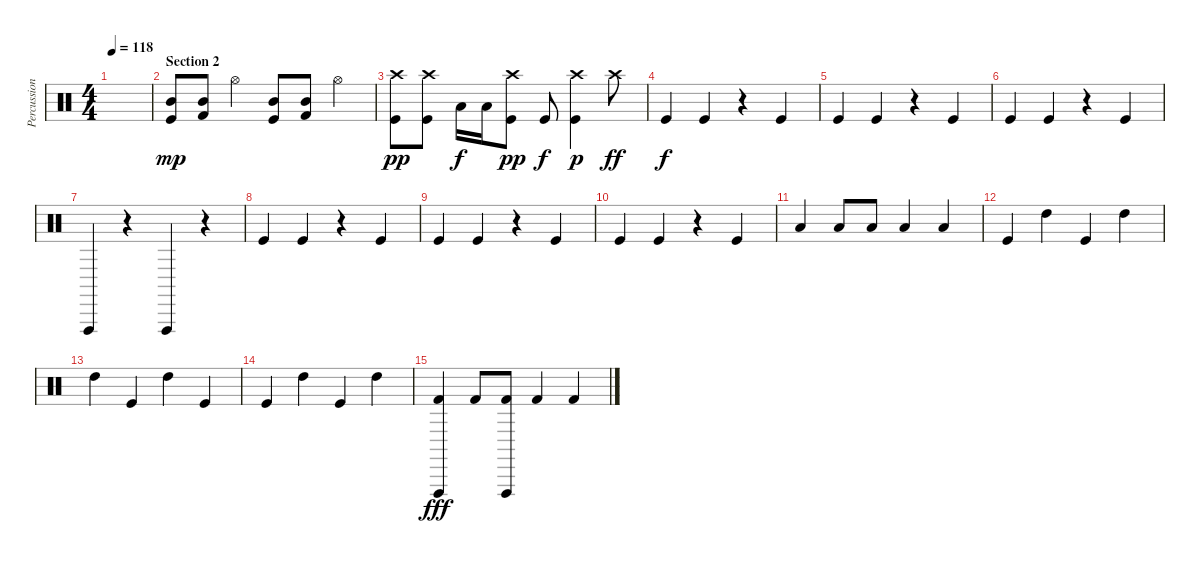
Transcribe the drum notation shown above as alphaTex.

\track ("Percussion" "Percussion") {instrument percussion}
\staff {score}
\articulation defaults
\ts (4 4)
\tempo 118
\clef neutral
\ks c
|
\section ("" "Section 2")
("Mid Tom (hit)" "Kick (hit)").8{dy mp} ("Mid Tom (hit)" "Kick (hit) 2").8 "Hi-Hat (open)".4 ("Mid Tom (hit)" "Kick (hit)").8 ("Mid Tom (hit)" "Kick (hit) 2").8 "Hi-Hat (open)".4 |
("Kick (hit)" "Crash high (hit)").8{dy pp} ("Kick (hit)" "Crash high (hit)").8 "Low Tom (hit)".16{dy f} "Low Tom (hit)".16 ("Kick (hit)" "Crash high (hit)").8{dy pp} "Kick (hit)".8{dy f} ("Kick (hit)" "Crash high (hit)").4{dy p} "Crash high (hit)".8{dy ff} |
"Kick (hit)".4{dy f} "Kick (hit)".4 r.4 "Kick (hit)".4 |
"Kick (hit)".4 "Kick (hit)".4 r.4 "Kick (hit)".4 |
"Kick (hit)".4 "Kick (hit)".4 r.4 "Kick (hit)".4 |
"Vibraslap (hit)".4 r.4 "Vibraslap (hit)".4 r.4 |
"Kick (hit)".4 "Kick (hit)".4 r.4 "Kick (hit)".4 |
"Kick (hit)".4 "Kick (hit)".4 r.4 "Kick (hit)".4 |
"Kick (hit)".4 "Kick (hit)".4 r.4 "Kick (hit)".4 |
"Low Tom (hit)".4 "Low Tom (hit)".8 "Low Tom (hit)".8 "Low Tom (hit)".4 "Low Tom (hit)".4 |
"Kick (hit)".4 "High Tom (hit)".4 "Kick (hit)".4 "High Tom (hit)".4 |
"High Tom (hit)".4 "Kick (hit)".4 "High Tom (hit)".4 "Kick (hit)".4 |
"Kick (hit)".4 "High Tom (hit)".4 "Kick (hit)".4 "High Tom (hit)".4 |
("Vibraslap (hit)" "Kick (hit) 2").4{dy fff} "Kick (hit) 2".8 ("Vibraslap (hit)" "Kick (hit) 2").8 "Kick (hit) 2".4 "Kick (hit) 2".4
